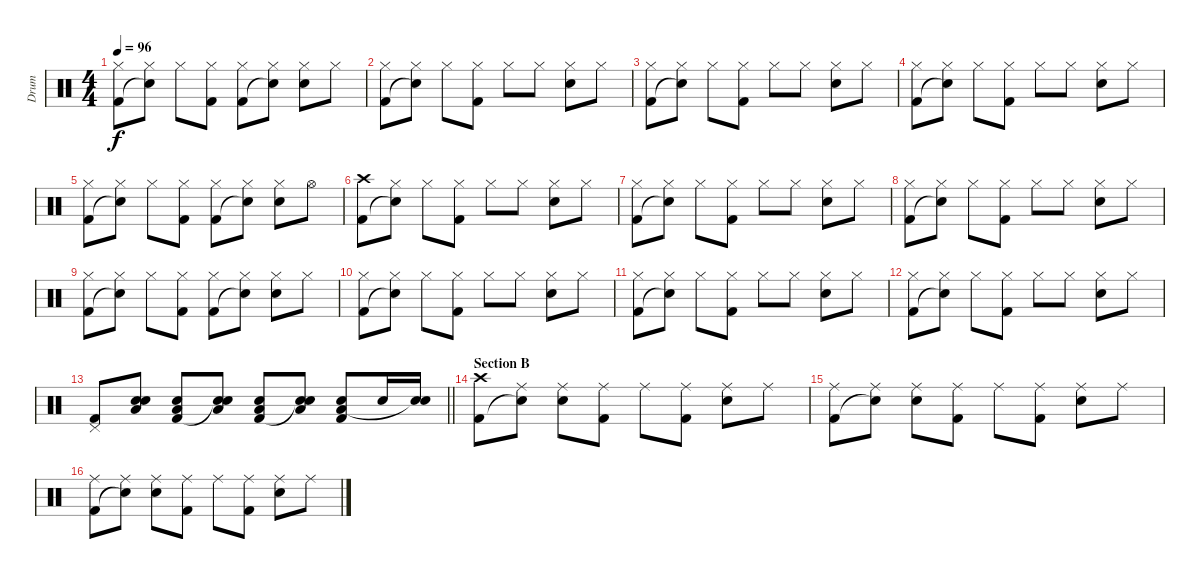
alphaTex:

\track ("Drum" "Drum") {instrument percussion}
\staff {score}
\articulation defaults
\ts (4 4)
\tempo 96
\clef neutral
\ks c
("Hi-Hat (closed)" "Kick (hit) 2").8{dy f} ("Hi-Hat (closed)" "Snare (hit)"{t}).8 "Hi-Hat (closed)".8 ("Hi-Hat (closed)" "Kick (hit) 2").8 ("Hi-Hat (closed)" "Kick (hit) 2").8 ("Hi-Hat (closed)" "Snare (hit)"{t}).8 ("Hi-Hat (closed)" "Snare (hit) 2").8 "Hi-Hat (closed)".8 |
("Hi-Hat (closed)" "Kick (hit) 2").8 ("Hi-Hat (closed)" "Snare (hit)"{t}).8 "Hi-Hat (closed)".8 ("Hi-Hat (closed)" "Kick (hit) 2").8 "Hi-Hat (closed)".8 "Hi-Hat (closed)".8 ("Hi-Hat (closed)" "Snare (hit) 2").8 "Hi-Hat (closed)".8 |
("Hi-Hat (closed)" "Kick (hit) 2").8 ("Hi-Hat (closed)" "Snare (hit)"{t}).8 "Hi-Hat (closed)".8 ("Hi-Hat (closed)" "Kick (hit) 2").8 "Hi-Hat (closed)".8 "Hi-Hat (closed)".8 ("Hi-Hat (closed)" "Snare (hit) 2").8 "Hi-Hat (closed)".8 |
("Hi-Hat (closed)" "Kick (hit) 2").8 ("Hi-Hat (closed)" "Snare (hit)"{t}).8 "Hi-Hat (closed)".8 ("Hi-Hat (closed)" "Kick (hit) 2").8 "Hi-Hat (closed)".8 "Hi-Hat (closed)".8 ("Hi-Hat (closed)" "Snare (hit) 2").8 "Hi-Hat (closed)".8 |
("Hi-Hat (closed)" "Kick (hit) 2").8 ("Hi-Hat (closed)" "Snare (hit)"{t}).8 "Hi-Hat (closed)".8 ("Hi-Hat (closed)" "Kick (hit) 2").8 ("Hi-Hat (closed)" "Kick (hit) 2").8 ("Hi-Hat (closed)" "Snare (hit)"{t}).8 ("Hi-Hat (closed)" "Snare (hit) 2").8 "Hi-Hat (open)".8 |
("Crash high (hit)" "Kick (hit) 2").8 ("Hi-Hat (closed)" "Snare (hit)"{t}).8 "Hi-Hat (closed)".8 ("Hi-Hat (closed)" "Kick (hit) 2").8 "Hi-Hat (closed)".8 "Hi-Hat (closed)".8 ("Hi-Hat (closed)" "Snare (hit) 2").8 "Hi-Hat (closed)".8 |
("Hi-Hat (closed)" "Kick (hit) 2").8 ("Hi-Hat (closed)" "Snare (hit)"{t}).8 "Hi-Hat (closed)".8 ("Hi-Hat (closed)" "Kick (hit) 2").8 "Hi-Hat (closed)".8 "Hi-Hat (closed)".8 ("Hi-Hat (closed)" "Snare (hit) 2").8 "Hi-Hat (closed)".8 |
("Hi-Hat (closed)" "Kick (hit) 2").8 ("Hi-Hat (closed)" "Snare (hit)"{t}).8 "Hi-Hat (closed)".8 ("Hi-Hat (closed)" "Kick (hit) 2").8 "Hi-Hat (closed)".8 "Hi-Hat (closed)".8 ("Hi-Hat (closed)" "Snare (hit) 2").8 "Hi-Hat (closed)".8 |
("Hi-Hat (closed)" "Kick (hit) 2").8 ("Hi-Hat (closed)" "Snare (hit)"{t}).8 "Hi-Hat (closed)".8 ("Hi-Hat (closed)" "Kick (hit) 2").8 ("Hi-Hat (closed)" "Kick (hit) 2").8 ("Hi-Hat (closed)" "Snare (hit)"{t}).8 ("Hi-Hat (closed)" "Snare (hit) 2").8 "Hi-Hat (closed)".8 |
("Hi-Hat (closed)" "Kick (hit) 2").8 ("Hi-Hat (closed)" "Snare (hit)"{t}).8 "Hi-Hat (closed)".8 ("Hi-Hat (closed)" "Kick (hit) 2").8 "Hi-Hat (closed)".8 "Hi-Hat (closed)".8 ("Hi-Hat (closed)" "Snare (hit) 2").8 "Hi-Hat (closed)".8 |
("Hi-Hat (closed)" "Kick (hit) 2").8 ("Hi-Hat (closed)" "Snare (hit)"{t}).8 "Hi-Hat (closed)".8 ("Hi-Hat (closed)" "Kick (hit) 2").8 "Hi-Hat (closed)".8 "Hi-Hat (closed)".8 ("Hi-Hat (closed)" "Snare (hit) 2").8 "Hi-Hat (closed)".8 |
("Hi-Hat (closed)" "Kick (hit) 2").8 ("Hi-Hat (closed)" "Snare (hit)"{t}).8 "Hi-Hat (closed)".8 ("Hi-Hat (closed)" "Kick (hit) 2").8 "Hi-Hat (closed)".8 "Hi-Hat (closed)".8 ("Hi-Hat (closed)" "Snare (hit) 2").8 "Hi-Hat (closed)".8 |
\barLineRight lightlight
("Pedal Hi-Hat (hit)" "Kick (hit) 2").8 ("Snare (hit) 2" "Low Tom (hit)" "Snare (hit)").8 ("Snare (hit) 2" "Low Tom (hit)" "Kick (hit) 2").8 ("Snare (hit) 2" "Low Tom (hit)" "Snare (hit)"{t}).8 ("Snare (hit) 2" "Low Tom (hit)" "Kick (hit) 2").8 ("Snare (hit) 2" "Low Tom (hit)" "Snare (hit)"{t}).8 ("Snare (hit) 2" "Low Tom (hit)" "Kick (hit) 2").8 "Snare (hit) 2".16 ("Snare (hit) 2" "Snare (hit)"{t}).16 |
\section ("" "Section B")
("Crash high (hit)" "Kick (hit) 2").8 ("Ride (middle)" "Snare (hit)"{t}).8 ("Ride (middle)" "Snare (hit) 2").8 ("Ride (middle)" "Kick (hit) 2").8 "Ride (middle)".8 ("Ride (middle)" "Kick (hit) 2").8 ("Ride (middle)" "Snare (hit) 2").8 "Ride (middle)".8 |
("Ride (middle)" "Kick (hit) 2").8 ("Ride (middle)" "Snare (hit)"{t}).8 ("Ride (middle)" "Snare (hit) 2").8 ("Ride (middle)" "Kick (hit) 2").8 "Ride (middle)".8 ("Ride (middle)" "Kick (hit) 2").8 ("Ride (middle)" "Snare (hit) 2").8 "Ride (middle)".8 |
("Ride (middle)" "Kick (hit) 2").8 ("Ride (middle)" "Snare (hit)"{t}).8 ("Ride (middle)" "Snare (hit) 2").8 ("Ride (middle)" "Kick (hit) 2").8 "Ride (middle)".8 ("Ride (middle)" "Kick (hit) 2").8 ("Ride (middle)" "Snare (hit) 2").8 "Ride (middle)".8
